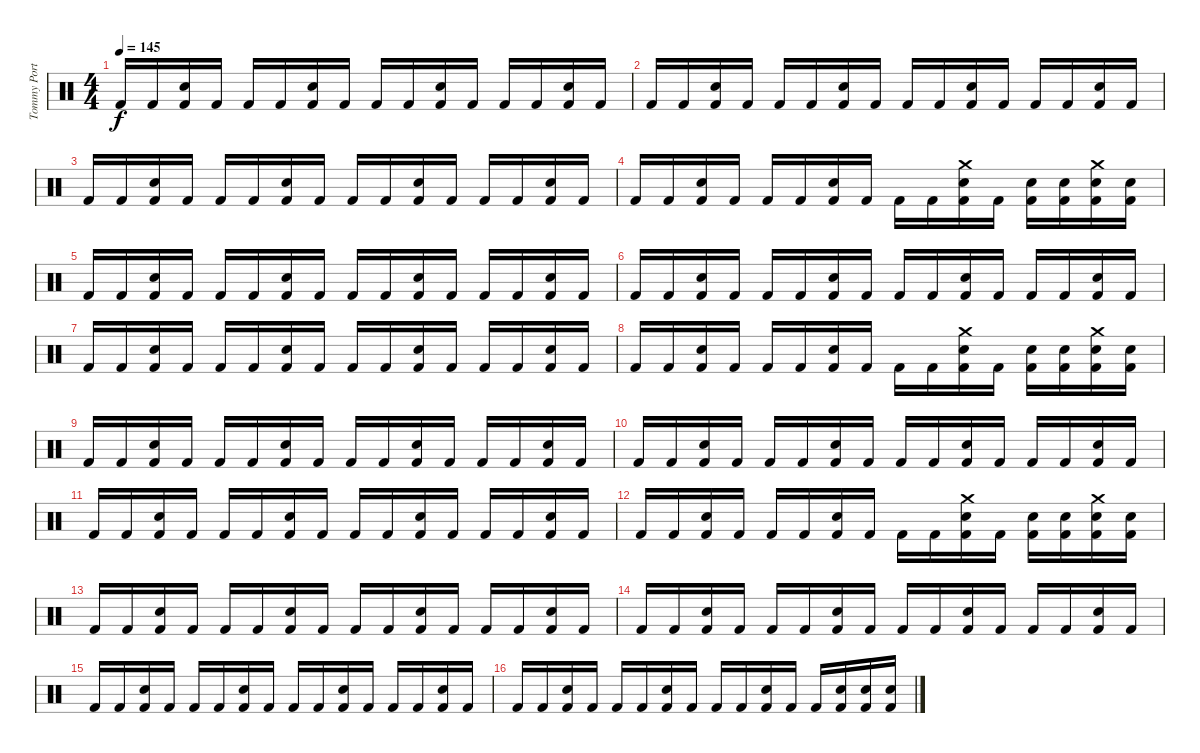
\track ("Tommy Portino" "Tommy Port") {instrument percussion}
\staff {score}
\articulation defaults
\ts (4 4)
\tempo 145
\clef neutral
\ks c "Kick (hit) 2".16{dy f} "Kick (hit) 2".16
("Kick (hit) 2" "Electric Snare (hit)").16 "Kick (hit) 2".16 "Kick (hit) 2".16 "Kick (hit) 2".16 ("Kick (hit) 2" "Electric Snare (hit)").16 "Kick (hit) 2".16 "Kick (hit) 2".16 "Kick (hit) 2".16 ("Kick (hit) 2" "Electric Snare (hit)").16 "Kick (hit) 2".16 "Kick (hit) 2".16 "Kick (hit) 2".16 ("Kick (hit) 2" "Electric Snare (hit)").16 "Kick (hit) 2".16 |
"Kick (hit) 2".16 "Kick (hit) 2".16 ("Kick (hit) 2" "Electric Snare (hit)").16 "Kick (hit) 2".16 "Kick (hit) 2".16 "Kick (hit) 2".16 ("Kick (hit) 2" "Electric Snare (hit)").16 "Kick (hit) 2".16 "Kick (hit) 2".16 "Kick (hit) 2".16 ("Kick (hit) 2" "Electric Snare (hit)").16 "Kick (hit) 2".16 "Kick (hit) 2".16 "Kick (hit) 2".16 ("Kick (hit) 2" "Electric Snare (hit)").16 "Kick (hit) 2".16 |
"Kick (hit) 2".16 "Kick (hit) 2".16 ("Kick (hit) 2" "Electric Snare (hit)").16 "Kick (hit) 2".16 "Kick (hit) 2".16 "Kick (hit) 2".16 ("Kick (hit) 2" "Electric Snare (hit)").16 "Kick (hit) 2".16 "Kick (hit) 2".16 "Kick (hit) 2".16 ("Kick (hit) 2" "Electric Snare (hit)").16 "Kick (hit) 2".16 "Kick (hit) 2".16 "Kick (hit) 2".16 ("Kick (hit) 2" "Electric Snare (hit)").16 "Kick (hit) 2".16 |
"Kick (hit) 2".16 "Kick (hit) 2".16 ("Kick (hit) 2" "Electric Snare (hit)").16 "Kick (hit) 2".16 "Kick (hit) 2".16 "Kick (hit) 2".16 ("Kick (hit) 2" "Electric Snare (hit)").16 "Kick (hit) 2".16 "Kick (hit) 2".16 "Kick (hit) 2".16 ("Kick (hit) 2" "Electric Snare (hit)" "Crash medium (hit)").16 "Kick (hit) 2".16 ("Kick (hit) 2" "Electric Snare (hit)").16 ("Kick (hit) 2" "Electric Snare (hit)").16 ("Kick (hit) 2" "Electric Snare (hit)" "Crash medium (hit)").16 ("Kick (hit) 2" "Electric Snare (hit)").16 |
"Kick (hit) 2".16 "Kick (hit) 2".16 ("Kick (hit) 2" "Electric Snare (hit)").16 "Kick (hit) 2".16 "Kick (hit) 2".16 "Kick (hit) 2".16 ("Kick (hit) 2" "Electric Snare (hit)").16 "Kick (hit) 2".16 "Kick (hit) 2".16 "Kick (hit) 2".16 ("Kick (hit) 2" "Electric Snare (hit)").16 "Kick (hit) 2".16 "Kick (hit) 2".16 "Kick (hit) 2".16 ("Kick (hit) 2" "Electric Snare (hit)").16 "Kick (hit) 2".16 |
"Kick (hit) 2".16 "Kick (hit) 2".16 ("Kick (hit) 2" "Electric Snare (hit)").16 "Kick (hit) 2".16 "Kick (hit) 2".16 "Kick (hit) 2".16 ("Kick (hit) 2" "Electric Snare (hit)").16 "Kick (hit) 2".16 "Kick (hit) 2".16 "Kick (hit) 2".16 ("Kick (hit) 2" "Electric Snare (hit)").16 "Kick (hit) 2".16 "Kick (hit) 2".16 "Kick (hit) 2".16 ("Kick (hit) 2" "Electric Snare (hit)").16 "Kick (hit) 2".16 |
"Kick (hit) 2".16 "Kick (hit) 2".16 ("Kick (hit) 2" "Electric Snare (hit)").16 "Kick (hit) 2".16 "Kick (hit) 2".16 "Kick (hit) 2".16 ("Kick (hit) 2" "Electric Snare (hit)").16 "Kick (hit) 2".16 "Kick (hit) 2".16 "Kick (hit) 2".16 ("Kick (hit) 2" "Electric Snare (hit)").16 "Kick (hit) 2".16 "Kick (hit) 2".16 "Kick (hit) 2".16 ("Kick (hit) 2" "Electric Snare (hit)").16 "Kick (hit) 2".16 |
"Kick (hit) 2".16 "Kick (hit) 2".16 ("Kick (hit) 2" "Electric Snare (hit)").16 "Kick (hit) 2".16 "Kick (hit) 2".16 "Kick (hit) 2".16 ("Kick (hit) 2" "Electric Snare (hit)").16 "Kick (hit) 2".16 "Kick (hit) 2".16 "Kick (hit) 2".16 ("Kick (hit) 2" "Electric Snare (hit)" "Crash medium (hit)").16 "Kick (hit) 2".16 ("Kick (hit) 2" "Electric Snare (hit)").16 ("Kick (hit) 2" "Electric Snare (hit)").16 ("Kick (hit) 2" "Electric Snare (hit)" "Crash medium (hit)").16 ("Kick (hit) 2" "Electric Snare (hit)").16 |
"Kick (hit) 2".16 "Kick (hit) 2".16 ("Kick (hit) 2" "Electric Snare (hit)").16 "Kick (hit) 2".16 "Kick (hit) 2".16 "Kick (hit) 2".16 ("Kick (hit) 2" "Electric Snare (hit)").16 "Kick (hit) 2".16 "Kick (hit) 2".16 "Kick (hit) 2".16 ("Kick (hit) 2" "Electric Snare (hit)").16 "Kick (hit) 2".16 "Kick (hit) 2".16 "Kick (hit) 2".16 ("Kick (hit) 2" "Electric Snare (hit)").16 "Kick (hit) 2".16 |
"Kick (hit) 2".16 "Kick (hit) 2".16 ("Kick (hit) 2" "Electric Snare (hit)").16 "Kick (hit) 2".16 "Kick (hit) 2".16 "Kick (hit) 2".16 ("Kick (hit) 2" "Electric Snare (hit)").16 "Kick (hit) 2".16 "Kick (hit) 2".16 "Kick (hit) 2".16 ("Kick (hit) 2" "Electric Snare (hit)").16 "Kick (hit) 2".16 "Kick (hit) 2".16 "Kick (hit) 2".16 ("Kick (hit) 2" "Electric Snare (hit)").16 "Kick (hit) 2".16 |
"Kick (hit) 2".16 "Kick (hit) 2".16 ("Kick (hit) 2" "Electric Snare (hit)").16 "Kick (hit) 2".16 "Kick (hit) 2".16 "Kick (hit) 2".16 ("Kick (hit) 2" "Electric Snare (hit)").16 "Kick (hit) 2".16 "Kick (hit) 2".16 "Kick (hit) 2".16 ("Kick (hit) 2" "Electric Snare (hit)").16 "Kick (hit) 2".16 "Kick (hit) 2".16 "Kick (hit) 2".16 ("Kick (hit) 2" "Electric Snare (hit)").16 "Kick (hit) 2".16 |
"Kick (hit) 2".16 "Kick (hit) 2".16 ("Kick (hit) 2" "Electric Snare (hit)").16 "Kick (hit) 2".16 "Kick (hit) 2".16 "Kick (hit) 2".16 ("Kick (hit) 2" "Electric Snare (hit)").16 "Kick (hit) 2".16 "Kick (hit) 2".16 "Kick (hit) 2".16 ("Kick (hit) 2" "Electric Snare (hit)" "Crash medium (hit)").16 "Kick (hit) 2".16 ("Kick (hit) 2" "Electric Snare (hit)").16 ("Kick (hit) 2" "Electric Snare (hit)").16 ("Kick (hit) 2" "Electric Snare (hit)" "Crash medium (hit)").16 ("Kick (hit) 2" "Electric Snare (hit)").16 |
"Kick (hit) 2".16 "Kick (hit) 2".16 ("Kick (hit) 2" "Electric Snare (hit)").16 "Kick (hit) 2".16 "Kick (hit) 2".16 "Kick (hit) 2".16 ("Kick (hit) 2" "Electric Snare (hit)").16 "Kick (hit) 2".16 "Kick (hit) 2".16 "Kick (hit) 2".16 ("Kick (hit) 2" "Electric Snare (hit)").16 "Kick (hit) 2".16 "Kick (hit) 2".16 "Kick (hit) 2".16 ("Kick (hit) 2" "Electric Snare (hit)").16 "Kick (hit) 2".16 |
"Kick (hit) 2".16 "Kick (hit) 2".16 ("Kick (hit) 2" "Electric Snare (hit)").16 "Kick (hit) 2".16 "Kick (hit) 2".16 "Kick (hit) 2".16 ("Kick (hit) 2" "Electric Snare (hit)").16 "Kick (hit) 2".16 "Kick (hit) 2".16 "Kick (hit) 2".16 ("Kick (hit) 2" "Electric Snare (hit)").16 "Kick (hit) 2".16 "Kick (hit) 2".16 "Kick (hit) 2".16 ("Kick (hit) 2" "Electric Snare (hit)").16 "Kick (hit) 2".16 |
"Kick (hit) 2".16 "Kick (hit) 2".16 ("Kick (hit) 2" "Electric Snare (hit)").16 "Kick (hit) 2".16 "Kick (hit) 2".16 "Kick (hit) 2".16 ("Kick (hit) 2" "Electric Snare (hit)").16 "Kick (hit) 2".16 "Kick (hit) 2".16 "Kick (hit) 2".16 ("Kick (hit) 2" "Electric Snare (hit)").16 "Kick (hit) 2".16 "Kick (hit) 2".16 "Kick (hit) 2".16 ("Kick (hit) 2" "Electric Snare (hit)").16 "Kick (hit) 2".16 |
"Kick (hit) 2".16 "Kick (hit) 2".16 ("Kick (hit) 2" "Electric Snare (hit)").16 "Kick (hit) 2".16 "Kick (hit) 2".16 "Kick (hit) 2".16 ("Kick (hit) 2" "Electric Snare (hit)").16 "Kick (hit) 2".16 "Kick (hit) 2".16 "Kick (hit) 2".16 ("Kick (hit) 2" "Electric Snare (hit)").16 "Kick (hit) 2".16 "Kick (hit) 2".16 ("Kick (hit) 2" "Electric Snare (hit)").16 ("Kick (hit) 2" "Electric Snare (hit)").16 ("Kick (hit) 2" "Electric Snare (hit)").16
